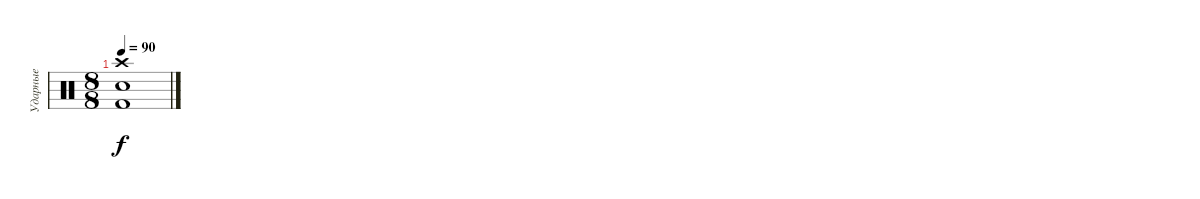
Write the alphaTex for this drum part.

\track ("Ударные" "Ударные") {instrument percussion}
\staff {score}
\articulation defaults
\ts (8 8)
\tempo 90
\clef neutral
\ks c
("Electric Snare (hit)" "Kick (hit) 2" "Crash high (hit)").1{dy f}
